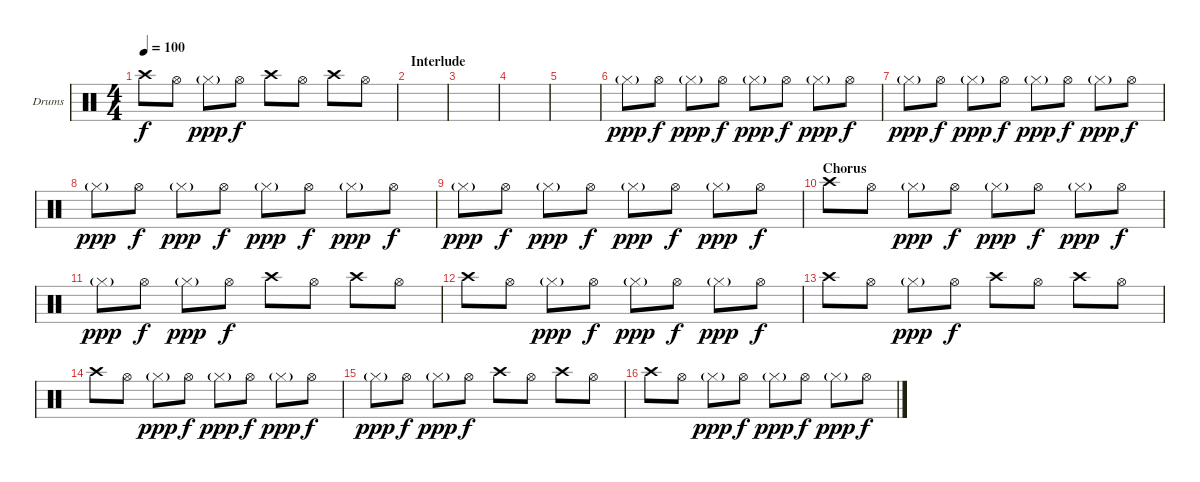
\bracketExtendMode groupsimilarinstruments
\firstSystemTrackNameOrientation horizontal
\otherSystemsTrackNameOrientation horizontal
\track ("Cymbals right" "Drums") {instrument percussion}
\staff {score}
\articulation defaults
\ts (4 4)
\tempo 100
\clef neutral
\ks c "Crash high (hit)".8{dy f} "Hi-Hat (open)".8 "Hi-Hat (closed)"{g}.8{dy ppp} "Hi-Hat (open)".8{dy f} "Crash high (hit)".8 "Hi-Hat (open)".8 "Crash high (hit)".8 "Hi-Hat (open)".8
|
\section ("" "Interlude")
|
|
|
|
"Hi-Hat (closed)"{g}.8{dy ppp} "Hi-Hat (open)".8{dy f} "Hi-Hat (closed)"{g}.8{dy ppp} "Hi-Hat (open)".8{dy f} "Hi-Hat (closed)"{g}.8{dy ppp} "Hi-Hat (open)".8{dy f} "Hi-Hat (closed)"{g}.8{dy ppp} "Hi-Hat (open)".8{dy f} |
"Hi-Hat (closed)"{g}.8{dy ppp} "Hi-Hat (open)".8{dy f} "Hi-Hat (closed)"{g}.8{dy ppp} "Hi-Hat (open)".8{dy f} "Hi-Hat (closed)"{g}.8{dy ppp} "Hi-Hat (open)".8{dy f} "Hi-Hat (closed)"{g}.8{dy ppp} "Hi-Hat (open)".8{dy f} |
"Hi-Hat (closed)"{g}.8{dy ppp} "Hi-Hat (open)".8{dy f} "Hi-Hat (closed)"{g}.8{dy ppp} "Hi-Hat (open)".8{dy f} "Hi-Hat (closed)"{g}.8{dy ppp} "Hi-Hat (open)".8{dy f} "Hi-Hat (closed)"{g}.8{dy ppp} "Hi-Hat (open)".8{dy f} |
"Hi-Hat (closed)"{g}.8{dy ppp} "Hi-Hat (open)".8{dy f} "Hi-Hat (closed)"{g}.8{dy ppp} "Hi-Hat (open)".8{dy f} "Hi-Hat (closed)"{g}.8{dy ppp} "Hi-Hat (open)".8{dy f} "Hi-Hat (closed)"{g}.8{dy ppp} "Hi-Hat (open)".8{dy f} |
\section ("" "Chorus")
"Crash high (hit)".8 "Hi-Hat (open)".8 "Hi-Hat (closed)"{g}.8{dy ppp} "Hi-Hat (open)".8{dy f} "Hi-Hat (closed)"{g}.8{dy ppp} "Hi-Hat (open)".8{dy f} "Hi-Hat (closed)"{g}.8{dy ppp} "Hi-Hat (open)".8{dy f} |
"Hi-Hat (closed)"{g}.8{dy ppp} "Hi-Hat (open)".8{dy f} "Hi-Hat (closed)"{g}.8{dy ppp} "Hi-Hat (open)".8{dy f} "Crash high (hit)".8 "Hi-Hat (open)".8 "Crash high (hit)".8 "Hi-Hat (open)".8 |
"Crash high (hit)".8 "Hi-Hat (open)".8 "Hi-Hat (closed)"{g}.8{dy ppp} "Hi-Hat (open)".8{dy f} "Hi-Hat (closed)"{g}.8{dy ppp} "Hi-Hat (open)".8{dy f} "Hi-Hat (closed)"{g}.8{dy ppp} "Hi-Hat (open)".8{dy f} |
"Crash high (hit)".8 "Hi-Hat (open)".8 "Hi-Hat (closed)"{g}.8{dy ppp} "Hi-Hat (open)".8{dy f} "Crash high (hit)".8 "Hi-Hat (open)".8 "Crash high (hit)".8 "Hi-Hat (open)".8 |
"Crash high (hit)".8 "Hi-Hat (open)".8 "Hi-Hat (closed)"{g}.8{dy ppp} "Hi-Hat (open)".8{dy f} "Hi-Hat (closed)"{g}.8{dy ppp} "Hi-Hat (open)".8{dy f} "Hi-Hat (closed)"{g}.8{dy ppp} "Hi-Hat (open)".8{dy f} |
"Hi-Hat (closed)"{g}.8{dy ppp} "Hi-Hat (open)".8{dy f} "Hi-Hat (closed)"{g}.8{dy ppp} "Hi-Hat (open)".8{dy f} "Crash high (hit)".8 "Hi-Hat (open)".8 "Crash high (hit)".8 "Hi-Hat (open)".8 |
"Crash high (hit)".8 "Hi-Hat (open)".8 "Hi-Hat (closed)"{g}.8{dy ppp} "Hi-Hat (open)".8{dy f} "Hi-Hat (closed)"{g}.8{dy ppp} "Hi-Hat (open)".8{dy f} "Hi-Hat (closed)"{g}.8{dy ppp} "Hi-Hat (open)".8{dy f}
